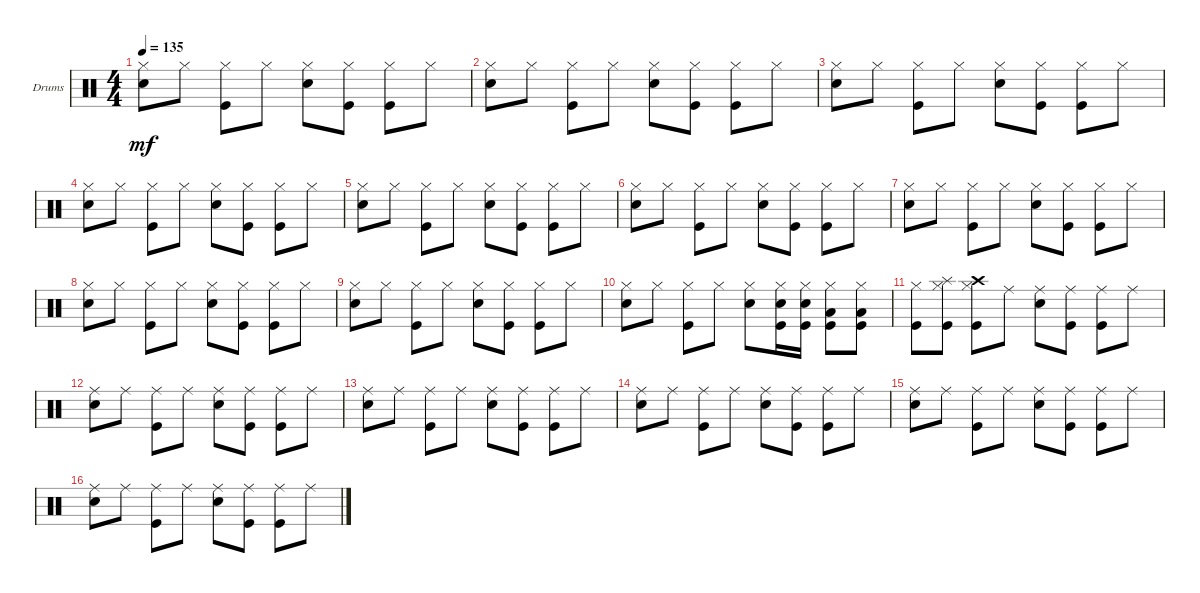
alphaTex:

\bracketExtendMode groupsimilarinstruments
\firstSystemTrackNameOrientation horizontal
\otherSystemsTrackNameOrientation horizontal
\track ("Drumkit" "Drums") {instrument percussion}
\staff {score}
\articulation defaults
\ts (4 4)
\tempo 135
\clef neutral
\ks c
("Snare (hit) 2" "Hi-Hat (closed)").8{dy mf} "Hi-Hat (closed)".8 ("Hi-Hat (closed)" "Kick (hit)").8 "Hi-Hat (closed)".8 ("Hi-Hat (closed)" "Snare (hit) 2").8 ("Hi-Hat (closed)" "Kick (hit)").8 ("Hi-Hat (closed)" "Kick (hit)").8 "Hi-Hat (closed)".8 |
("Snare (hit) 2" "Hi-Hat (closed)").8 "Hi-Hat (closed)".8 ("Hi-Hat (closed)" "Kick (hit)").8 "Hi-Hat (closed)".8 ("Hi-Hat (closed)" "Snare (hit) 2").8 ("Hi-Hat (closed)" "Kick (hit)").8 ("Hi-Hat (closed)" "Kick (hit)").8 "Hi-Hat (closed)".8 |
("Snare (hit) 2" "Hi-Hat (closed)").8 "Hi-Hat (closed)".8 ("Hi-Hat (closed)" "Kick (hit)").8 "Hi-Hat (closed)".8 ("Hi-Hat (closed)" "Snare (hit) 2").8 ("Hi-Hat (closed)" "Kick (hit)").8 ("Hi-Hat (closed)" "Kick (hit)").8 "Hi-Hat (closed)".8 |
("Snare (hit) 2" "Hi-Hat (closed)").8 "Hi-Hat (closed)".8 ("Hi-Hat (closed)" "Kick (hit)").8 "Hi-Hat (closed)".8 ("Hi-Hat (closed)" "Snare (hit) 2").8 ("Hi-Hat (closed)" "Kick (hit)").8 ("Hi-Hat (closed)" "Kick (hit)").8 "Hi-Hat (closed)".8 |
("Snare (hit) 2" "Hi-Hat (closed)").8 "Hi-Hat (closed)".8 ("Hi-Hat (closed)" "Kick (hit)").8 "Hi-Hat (closed)".8 ("Hi-Hat (closed)" "Snare (hit) 2").8 ("Hi-Hat (closed)" "Kick (hit)").8 ("Hi-Hat (closed)" "Kick (hit)").8 "Hi-Hat (closed)".8 |
("Snare (hit) 2" "Hi-Hat (closed)").8 "Hi-Hat (closed)".8 ("Hi-Hat (closed)" "Kick (hit)").8 "Hi-Hat (closed)".8 ("Hi-Hat (closed)" "Snare (hit) 2").8 ("Hi-Hat (closed)" "Kick (hit)").8 ("Hi-Hat (closed)" "Kick (hit)").8 "Hi-Hat (closed)".8 |
("Snare (hit) 2" "Hi-Hat (closed)").8 "Hi-Hat (closed)".8 ("Hi-Hat (closed)" "Kick (hit)").8 "Hi-Hat (closed)".8 ("Hi-Hat (closed)" "Snare (hit) 2").8 ("Hi-Hat (closed)" "Kick (hit)").8 ("Hi-Hat (closed)" "Kick (hit)").8 "Hi-Hat (closed)".8 |
("Snare (hit) 2" "Hi-Hat (closed)").8 "Hi-Hat (closed)".8 ("Hi-Hat (closed)" "Kick (hit)").8 "Hi-Hat (closed)".8 ("Hi-Hat (closed)" "Snare (hit) 2").8 ("Hi-Hat (closed)" "Kick (hit)").8 ("Hi-Hat (closed)" "Kick (hit)").8 "Hi-Hat (closed)".8 |
("Snare (hit) 2" "Hi-Hat (closed)").8 "Hi-Hat (closed)".8 ("Hi-Hat (closed)" "Kick (hit)").8 "Hi-Hat (closed)".8 ("Hi-Hat (closed)" "Snare (hit) 2").8 ("Hi-Hat (closed)" "Kick (hit)").8 ("Hi-Hat (closed)" "Kick (hit)").8 "Hi-Hat (closed)".8 |
("Snare (hit) 2" "Hi-Hat (closed)").8 "Hi-Hat (closed)".8 ("Hi-Hat (closed)" "Kick (hit)").8 "Hi-Hat (closed)".8 ("Hi-Hat (closed)" "Snare (hit) 2").8 ("Hi-Hat (closed)" "Kick (hit)" "Snare (hit) 2").16 ("Hi-Hat (closed)" "Kick (hit)" "Snare (hit) 2").16 ("Hi-Hat (closed)" "Kick (hit)" "Low Tom (hit)").8 ("Hi-Hat (closed)" "Kick (hit)" "Low Tom (hit)").8 |
("Hi-Hat (closed)" "Kick (hit)").8 ("Hi-Hat (closed)" "Kick (hit)" "Splash (hit)").8 ("Hi-Hat (closed)" "Kick (hit)" "Crash high (hit)").8 "Ride (middle)".8 ("Snare (hit) 2" "Ride (middle)").8 ("Kick (hit)" "Ride (middle)").8 ("Kick (hit)" "Ride (middle)").8 "Ride (middle)".8 |
("Snare (hit) 2" "Ride (middle)").8 "Ride (middle)".8 ("Kick (hit)" "Ride (middle)").8 "Ride (middle)".8 ("Snare (hit) 2" "Ride (middle)").8 ("Kick (hit)" "Ride (middle)").8 ("Kick (hit)" "Ride (middle)").8 "Ride (middle)".8 |
("Snare (hit) 2" "Ride (middle)").8 "Ride (middle)".8 ("Kick (hit)" "Ride (middle)").8 "Ride (middle)".8 ("Snare (hit) 2" "Ride (middle)").8 ("Kick (hit)" "Ride (middle)").8 ("Kick (hit)" "Ride (middle)").8 "Ride (middle)".8 |
("Snare (hit) 2" "Ride (middle)").8 "Ride (middle)".8 ("Kick (hit)" "Ride (middle)").8 "Ride (middle)".8 ("Snare (hit) 2" "Ride (middle)").8 ("Kick (hit)" "Ride (middle)").8 ("Kick (hit)" "Ride (middle)").8 "Ride (middle)".8 |
("Snare (hit) 2" "Ride (middle)").8 "Ride (middle)".8 ("Kick (hit)" "Ride (middle)").8 "Ride (middle)".8 ("Snare (hit) 2" "Ride (middle)").8 ("Kick (hit)" "Ride (middle)").8 ("Kick (hit)" "Ride (middle)").8 "Ride (middle)".8 |
("Snare (hit) 2" "Ride (middle)").8 "Ride (middle)".8 ("Kick (hit)" "Ride (middle)").8 "Ride (middle)".8 ("Snare (hit) 2" "Ride (middle)").8 ("Kick (hit)" "Ride (middle)").8 ("Kick (hit)" "Ride (middle)").8 "Ride (middle)".8
